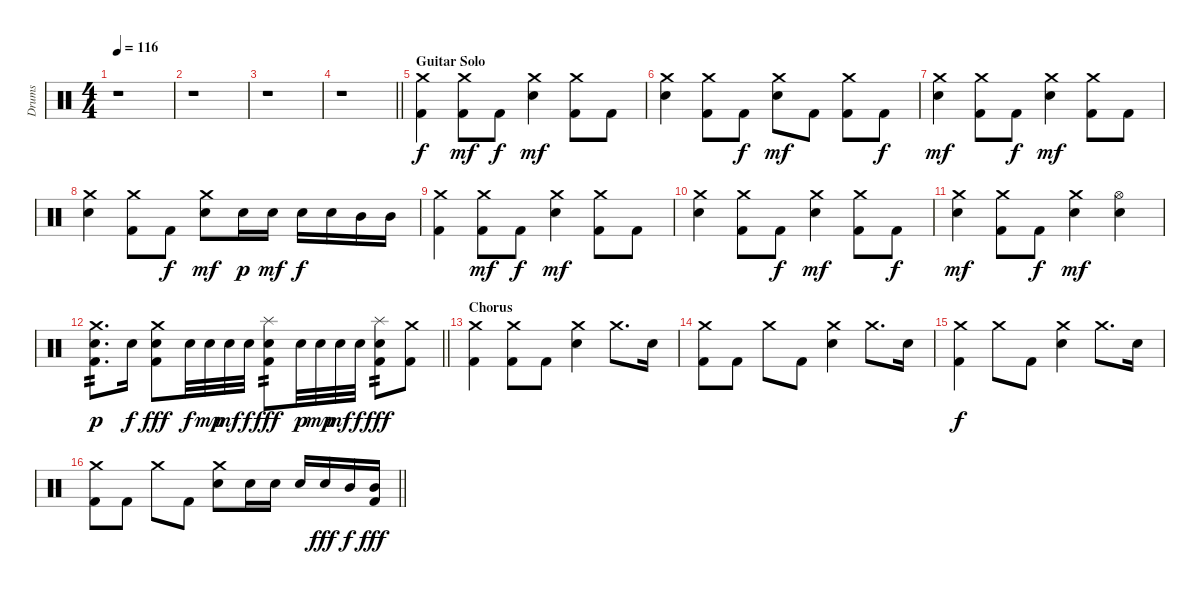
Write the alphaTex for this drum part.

\track ("Drums" "Drums") {instrument percussion}
\staff {score}
\articulation defaults
\ts (4 4)
\tempo 116
\clef neutral
\ks c
r.1{dy mf} |
r.1 |
r.1 |
\barLineRight lightlight
r.1 |
\section ("" "Guitar Solo")
("Crash medium (hit)" "Kick (hit) 2").4{dy f} ("Crash medium (hit)" "Kick (hit) 2").8{dy mf} "Kick (hit) 2".8{dy f} ("Crash medium (hit)" "Electric Snare (hit)").4{dy mf} ("Crash medium (hit)" "Kick (hit) 2").8 "Kick (hit) 2".8 |
("Crash medium (hit)" "Electric Snare (hit)").4 ("Crash medium (hit)" "Kick (hit) 2").8 "Kick (hit) 2".8{dy f} ("Crash medium (hit)" "Electric Snare (hit)").8{dy mf} "Kick (hit) 2".8 ("Crash medium (hit)" "Kick (hit) 2").8 "Kick (hit) 2".8{dy f} |
("Crash medium (hit)" "Electric Snare (hit)").4{dy mf} ("Crash medium (hit)" "Kick (hit) 2").8 "Kick (hit) 2".8{dy f} ("Crash medium (hit)" "Electric Snare (hit)").4{dy mf} ("Crash medium (hit)" "Kick (hit) 2").8 "Kick (hit) 2".8 |
("Crash medium (hit)" "Electric Snare (hit)").4 ("Crash medium (hit)" "Kick (hit) 2").8 "Kick (hit) 2".8{dy f} ("Crash medium (hit)" "Electric Snare (hit)").8{dy mf} "Electric Snare (hit)".16{dy p} "Electric Snare (hit)".16{dy mf} "Electric Snare (hit)".16{dy f} "Electric Snare (hit)".16 "Mid Tom (hit)".16 "Mid Tom (hit)".16 |
("Crash medium (hit)" "Kick (hit) 2").4 ("Crash medium (hit)" "Kick (hit) 2").8{dy mf} "Kick (hit) 2".8{dy f} ("Crash medium (hit)" "Electric Snare (hit)").4{dy mf} ("Crash medium (hit)" "Kick (hit) 2").8 "Kick (hit) 2".8 |
("Crash medium (hit)" "Electric Snare (hit)").4 ("Crash medium (hit)" "Kick (hit) 2").8 "Kick (hit) 2".8{dy f} ("Crash medium (hit)" "Electric Snare (hit)").4{dy mf} ("Crash medium (hit)" "Kick (hit) 2").8 "Kick (hit) 2".8{dy f} |
("Crash medium (hit)" "Electric Snare (hit)").4{dy mf} ("Crash medium (hit)" "Kick (hit) 2").8 "Kick (hit) 2".8{dy f} ("Crash medium (hit)" "Electric Snare (hit)").4{dy mf} ("Hi-Hat (open)" "Electric Snare (hit)").4 |
\barLineRight lightlight
("Crash medium (hit)" "Electric Snare (hit)" "Kick (hit) 2").8{d tp 2 dy p} "Electric Snare (hit)".16{dy f} ("Crash medium (hit)" "Electric Snare (hit)" "Kick (hit) 2").8{dy fff} "Electric Snare (hit)".32{dy f} "Electric Snare (hit)".32{dy mp} "Electric Snare (hit)".32{dy mf} "Electric Snare (hit)".32{dy f} ("Splash (hit)" "Electric Snare (hit)" "Kick (hit) 2").8{tp 2 dy fff} "Electric Snare (hit)".32{dy p} "Electric Snare (hit)".32{dy mp} "Electric Snare (hit)".32{dy mf} "Electric Snare (hit)".32{dy f} ("Splash (hit)" "Electric Snare (hit)" "Kick (hit) 2").8{tp 2 dy fff} ("Crash medium (hit)" "Kick (hit) 2").8 |
\section ("" "Chorus")
("Crash medium (hit)" "Kick (hit) 2").4 ("Crash medium (hit)" "Kick (hit) 2").8 "Kick (hit) 2".8 ("Crash medium (hit)" "Electric Snare (hit)").4 "Crash medium (hit)".8{d} "Electric Snare (hit)".16 |
("Crash medium (hit)" "Kick (hit) 2").8 "Kick (hit) 2".8 "Crash medium (hit)".8 "Kick (hit) 2".8 ("Crash medium (hit)" "Electric Snare (hit)").4 "Crash medium (hit)".8{d} "Electric Snare (hit)".16 |
("Crash medium (hit)" "Kick (hit) 2").4{dy f} "Crash medium (hit)".8 "Kick (hit) 2".8 ("Crash medium (hit)" "Electric Snare (hit)").4 "Crash medium (hit)".8{d} "Snare (hit) 2".16 |
\barLineRight lightlight
("Crash medium (hit)" "Kick (hit) 2").8 "Kick (hit) 2".8 "Crash medium (hit)".8 "Kick (hit) 2".8 ("Crash medium (hit)" "Electric Snare (hit)").8 "Electric Snare (hit)".16 "Electric Snare (hit)".16 "Electric Snare (hit)".16 "Electric Snare (hit)".16{dy fff} "Mid Tom (hit)".16{dy f} ("Mid Tom (hit)" "Kick (hit) 2").16{dy fff}
